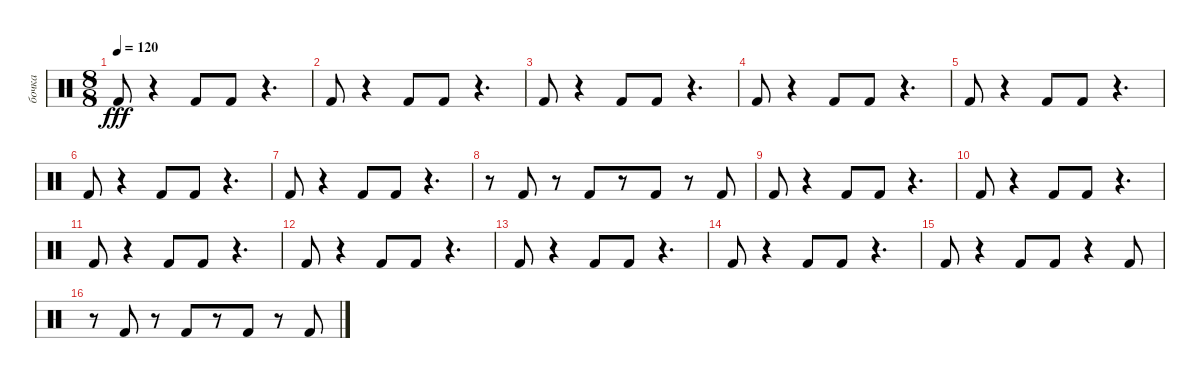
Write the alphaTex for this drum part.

\track ("бочка" "бочка") {instrument percussion}
\staff {score}
\articulation defaults
\ts (8 8)
\tempo 120
\clef neutral
\ks c "Kick (hit) 2".8{dy fff}
r.4 "Kick (hit) 2".8 "Kick (hit) 2".8 r.4{d} |
"Kick (hit) 2".8 r.4 "Kick (hit) 2".8 "Kick (hit) 2".8 r.4{d} |
"Kick (hit) 2".8 r.4 "Kick (hit) 2".8 "Kick (hit) 2".8 r.4{d} |
"Kick (hit) 2".8 r.4 "Kick (hit) 2".8 "Kick (hit) 2".8 r.4{d} |
"Kick (hit) 2".8 r.4 "Kick (hit) 2".8 "Kick (hit) 2".8 r.4{d} |
"Kick (hit) 2".8 r.4 "Kick (hit) 2".8 "Kick (hit) 2".8 r.4{d} |
"Kick (hit) 2".8 r.4 "Kick (hit) 2".8 "Kick (hit) 2".8 r.4{d} |
r.8 "Kick (hit) 2".8 r.8 "Kick (hit) 2".8 r.8 "Kick (hit) 2".8 r.8 "Kick (hit) 2".8 |
"Kick (hit) 2".8 r.4 "Kick (hit) 2".8 "Kick (hit) 2".8 r.4{d} |
"Kick (hit) 2".8 r.4 "Kick (hit) 2".8 "Kick (hit) 2".8 r.4{d} |
"Kick (hit) 2".8 r.4 "Kick (hit) 2".8 "Kick (hit) 2".8 r.4{d} |
"Kick (hit) 2".8 r.4 "Kick (hit) 2".8 "Kick (hit) 2".8 r.4{d} |
"Kick (hit) 2".8 r.4 "Kick (hit) 2".8 "Kick (hit) 2".8 r.4{d} |
"Kick (hit) 2".8 r.4 "Kick (hit) 2".8 "Kick (hit) 2".8 r.4{d} |
"Kick (hit) 2".8 r.4 "Kick (hit) 2".8 "Kick (hit) 2".8 r.4 "Kick (hit) 2".8 |
r.8 "Kick (hit) 2".8 r.8 "Kick (hit) 2".8 r.8 "Kick (hit) 2".8 r.8 "Kick (hit) 2".8
